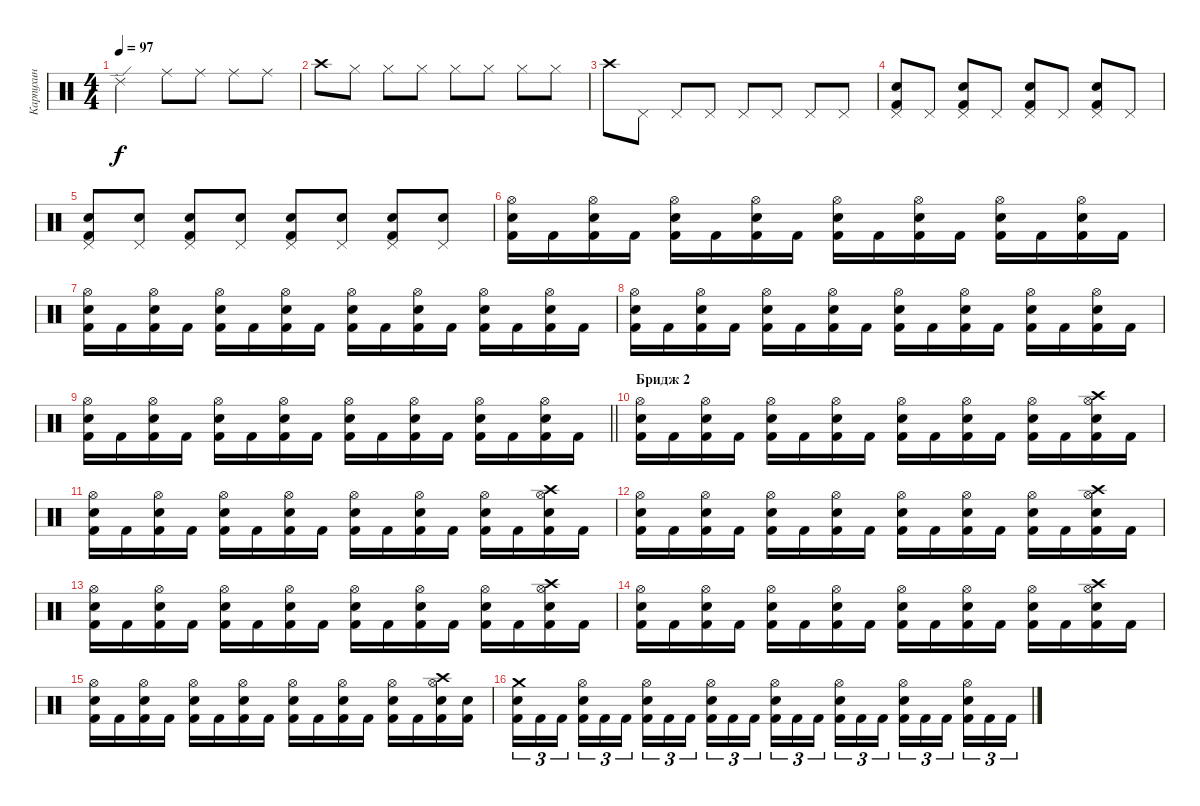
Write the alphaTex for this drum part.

\track ("Карпухин" "Карпухин") {instrument percussion}
\staff {score}
\articulation defaults
\ts (4 4)
\tempo 97
\clef neutral
\ks c "Ride (edge) 2".2{dy f} "Ride (middle)".8 "Ride (middle)".8 "Ride (middle)".8 "Ride (middle)".8
|
"Crash high (hit)".8 "Hi-Hat (closed)".8 "Hi-Hat (closed)".8 "Hi-Hat (closed)".8 "Hi-Hat (closed)".8 "Hi-Hat (closed)".8 "Hi-Hat (closed)".8 "Hi-Hat (closed)".8 |
"Crash high (hit)".8 "Pedal Hi-Hat (hit)".8 "Pedal Hi-Hat (hit)".8 "Pedal Hi-Hat (hit)".8 "Pedal Hi-Hat (hit)".8 "Pedal Hi-Hat (hit)".8 "Pedal Hi-Hat (hit)".8 "Pedal Hi-Hat (hit)".8 |
("Pedal Hi-Hat (hit)" "Electric Snare (hit)" "Kick (hit) 2").8 "Pedal Hi-Hat (hit)".8 ("Pedal Hi-Hat (hit)" "Electric Snare (hit)" "Kick (hit) 2").8 "Pedal Hi-Hat (hit)".8 ("Pedal Hi-Hat (hit)" "Electric Snare (hit)" "Kick (hit) 2").8 "Pedal Hi-Hat (hit)".8 ("Pedal Hi-Hat (hit)" "Electric Snare (hit)" "Kick (hit) 2").8 "Pedal Hi-Hat (hit)".8 |
("Pedal Hi-Hat (hit)" "Electric Snare (hit)" "Kick (hit) 2").8 ("Pedal Hi-Hat (hit)" "Electric Snare (hit)").8 ("Pedal Hi-Hat (hit)" "Electric Snare (hit)" "Kick (hit) 2").8 ("Pedal Hi-Hat (hit)" "Electric Snare (hit)").8 ("Pedal Hi-Hat (hit)" "Electric Snare (hit)" "Kick (hit) 2").8 ("Pedal Hi-Hat (hit)" "Electric Snare (hit)").8 ("Pedal Hi-Hat (hit)" "Electric Snare (hit)" "Kick (hit) 2").8 ("Pedal Hi-Hat (hit)" "Electric Snare (hit)").8 |
("Kick (hit) 2" "Snare (hit) 2" "Hi-Hat (open)").16 "Kick (hit) 2".16 ("Kick (hit) 2" "Snare (hit) 2" "Hi-Hat (open)").16 "Kick (hit) 2".16 ("Kick (hit) 2" "Snare (hit) 2" "Hi-Hat (open)").16 "Kick (hit) 2".16 ("Kick (hit) 2" "Snare (hit) 2" "Hi-Hat (open)").16 "Kick (hit) 2".16 ("Kick (hit) 2" "Snare (hit) 2" "Hi-Hat (open)").16 "Kick (hit) 2".16 ("Kick (hit) 2" "Snare (hit) 2" "Hi-Hat (open)").16 "Kick (hit) 2".16 ("Kick (hit) 2" "Snare (hit) 2" "Hi-Hat (open)").16 "Kick (hit) 2".16 ("Kick (hit) 2" "Snare (hit) 2" "Hi-Hat (open)").16 "Kick (hit) 2".16 |
("Kick (hit) 2" "Snare (hit) 2" "Hi-Hat (open)").16 "Kick (hit) 2".16 ("Kick (hit) 2" "Snare (hit) 2" "Hi-Hat (open)").16 "Kick (hit) 2".16 ("Kick (hit) 2" "Snare (hit) 2" "Hi-Hat (open)").16 "Kick (hit) 2".16 ("Kick (hit) 2" "Snare (hit) 2" "Hi-Hat (open)").16 "Kick (hit) 2".16 ("Kick (hit) 2" "Snare (hit) 2" "Hi-Hat (open)").16 "Kick (hit) 2".16 ("Kick (hit) 2" "Snare (hit) 2" "Hi-Hat (open)").16 "Kick (hit) 2".16 ("Kick (hit) 2" "Snare (hit) 2" "Hi-Hat (open)").16 "Kick (hit) 2".16 ("Kick (hit) 2" "Snare (hit) 2" "Hi-Hat (open)").16 "Kick (hit) 2".16 |
("Kick (hit) 2" "Snare (hit) 2" "Hi-Hat (open)").16 "Kick (hit) 2".16 ("Kick (hit) 2" "Snare (hit) 2" "Hi-Hat (open)").16 "Kick (hit) 2".16 ("Kick (hit) 2" "Snare (hit) 2" "Hi-Hat (open)").16 "Kick (hit) 2".16 ("Kick (hit) 2" "Snare (hit) 2" "Hi-Hat (open)").16 "Kick (hit) 2".16 ("Kick (hit) 2" "Snare (hit) 2" "Hi-Hat (open)").16 "Kick (hit) 2".16 ("Kick (hit) 2" "Snare (hit) 2" "Hi-Hat (open)").16 "Kick (hit) 2".16 ("Kick (hit) 2" "Snare (hit) 2" "Hi-Hat (open)").16 "Kick (hit) 2".16 ("Kick (hit) 2" "Snare (hit) 2" "Hi-Hat (open)").16 "Kick (hit) 2".16 |
\barLineRight lightlight
("Kick (hit) 2" "Snare (hit) 2" "Hi-Hat (open)").16 "Kick (hit) 2".16 ("Kick (hit) 2" "Snare (hit) 2" "Hi-Hat (open)").16 "Kick (hit) 2".16 ("Kick (hit) 2" "Snare (hit) 2" "Hi-Hat (open)").16 "Kick (hit) 2".16 ("Kick (hit) 2" "Snare (hit) 2" "Hi-Hat (open)").16 "Kick (hit) 2".16 ("Kick (hit) 2" "Snare (hit) 2" "Hi-Hat (open)").16 "Kick (hit) 2".16 ("Kick (hit) 2" "Snare (hit) 2" "Hi-Hat (open)").16 "Kick (hit) 2".16 ("Kick (hit) 2" "Snare (hit) 2" "Hi-Hat (open)").16 "Kick (hit) 2".16 ("Kick (hit) 2" "Snare (hit) 2" "Hi-Hat (open)").16 "Kick (hit) 2".16 |
\section ("" "Бридж 2")
("Kick (hit) 2" "Snare (hit) 2" "Hi-Hat (open)").16 "Kick (hit) 2".16 ("Kick (hit) 2" "Snare (hit) 2" "Hi-Hat (open)").16 "Kick (hit) 2".16 ("Kick (hit) 2" "Snare (hit) 2" "Hi-Hat (open)").16 "Kick (hit) 2".16 ("Kick (hit) 2" "Snare (hit) 2" "Hi-Hat (open)").16 "Kick (hit) 2".16 ("Kick (hit) 2" "Snare (hit) 2" "Hi-Hat (open)").16 "Kick (hit) 2".16 ("Kick (hit) 2" "Snare (hit) 2" "Hi-Hat (open)").16 "Kick (hit) 2".16 ("Kick (hit) 2" "Snare (hit) 2" "Hi-Hat (open)").16 "Kick (hit) 2".16 ("Kick (hit) 2" "Snare (hit) 2" "Hi-Hat (open)" "Crash high (hit)").16 "Kick (hit) 2".16 |
("Kick (hit) 2" "Snare (hit) 2" "Hi-Hat (open)").16 "Kick (hit) 2".16 ("Kick (hit) 2" "Snare (hit) 2" "Hi-Hat (open)").16 "Kick (hit) 2".16 ("Kick (hit) 2" "Snare (hit) 2" "Hi-Hat (open)").16 "Kick (hit) 2".16 ("Kick (hit) 2" "Snare (hit) 2" "Hi-Hat (open)").16 "Kick (hit) 2".16 ("Kick (hit) 2" "Snare (hit) 2" "Hi-Hat (open)").16 "Kick (hit) 2".16 ("Kick (hit) 2" "Snare (hit) 2" "Hi-Hat (open)").16 "Kick (hit) 2".16 ("Kick (hit) 2" "Snare (hit) 2" "Hi-Hat (open)").16 "Kick (hit) 2".16 ("Kick (hit) 2" "Snare (hit) 2" "Hi-Hat (open)" "Crash high (hit)").16 "Kick (hit) 2".16 |
("Kick (hit) 2" "Snare (hit) 2" "Hi-Hat (open)").16 "Kick (hit) 2".16 ("Kick (hit) 2" "Snare (hit) 2" "Hi-Hat (open)").16 "Kick (hit) 2".16 ("Kick (hit) 2" "Snare (hit) 2" "Hi-Hat (open)").16 "Kick (hit) 2".16 ("Kick (hit) 2" "Snare (hit) 2" "Hi-Hat (open)").16 "Kick (hit) 2".16 ("Kick (hit) 2" "Snare (hit) 2" "Hi-Hat (open)").16 "Kick (hit) 2".16 ("Kick (hit) 2" "Snare (hit) 2" "Hi-Hat (open)").16 "Kick (hit) 2".16 ("Kick (hit) 2" "Snare (hit) 2" "Hi-Hat (open)").16 "Kick (hit) 2".16 ("Kick (hit) 2" "Snare (hit) 2" "Hi-Hat (open)" "Crash high (hit)").16 "Kick (hit) 2".16 |
("Kick (hit) 2" "Snare (hit) 2" "Hi-Hat (open)").16 "Kick (hit) 2".16 ("Kick (hit) 2" "Snare (hit) 2" "Hi-Hat (open)").16 "Kick (hit) 2".16 ("Kick (hit) 2" "Snare (hit) 2" "Hi-Hat (open)").16 "Kick (hit) 2".16 ("Kick (hit) 2" "Snare (hit) 2" "Hi-Hat (open)").16 "Kick (hit) 2".16 ("Kick (hit) 2" "Snare (hit) 2" "Hi-Hat (open)").16 "Kick (hit) 2".16 ("Kick (hit) 2" "Snare (hit) 2" "Hi-Hat (open)").16 "Kick (hit) 2".16 ("Kick (hit) 2" "Snare (hit) 2" "Hi-Hat (open)").16 "Kick (hit) 2".16 ("Kick (hit) 2" "Snare (hit) 2" "Hi-Hat (open)" "Crash high (hit)").16 "Kick (hit) 2".16 |
("Kick (hit) 2" "Snare (hit) 2" "Hi-Hat (open)").16 "Kick (hit) 2".16 ("Kick (hit) 2" "Snare (hit) 2" "Hi-Hat (open)").16 "Kick (hit) 2".16 ("Kick (hit) 2" "Snare (hit) 2" "Hi-Hat (open)").16 "Kick (hit) 2".16 ("Kick (hit) 2" "Snare (hit) 2" "Hi-Hat (open)").16 "Kick (hit) 2".16 ("Kick (hit) 2" "Snare (hit) 2" "Hi-Hat (open)").16 "Kick (hit) 2".16 ("Kick (hit) 2" "Snare (hit) 2" "Hi-Hat (open)").16 "Kick (hit) 2".16 ("Kick (hit) 2" "Snare (hit) 2" "Hi-Hat (open)").16 "Kick (hit) 2".16 ("Kick (hit) 2" "Snare (hit) 2" "Hi-Hat (open)" "Crash high (hit)").16 "Kick (hit) 2".16 |
("Kick (hit) 2" "Snare (hit) 2" "Hi-Hat (open)").16 "Kick (hit) 2".16 ("Kick (hit) 2" "Snare (hit) 2" "Hi-Hat (open)").16 "Kick (hit) 2".16 ("Kick (hit) 2" "Snare (hit) 2" "Hi-Hat (open)").16 "Kick (hit) 2".16 ("Kick (hit) 2" "Snare (hit) 2" "Hi-Hat (open)").16 "Kick (hit) 2".16 ("Kick (hit) 2" "Snare (hit) 2" "Hi-Hat (open)").16 "Kick (hit) 2".16 ("Kick (hit) 2" "Snare (hit) 2" "Hi-Hat (open)").16 "Kick (hit) 2".16 ("Kick (hit) 2" "Snare (hit) 2" "Hi-Hat (open)").16 "Kick (hit) 2".16 ("Kick (hit) 2" "Snare (hit) 2" "Hi-Hat (open)" "Crash high (hit)").16 ("Kick (hit) 2" "Snare (hit) 2").16 |
("Snare (hit) 2" "Crash medium (hit)" "Kick (hit) 2").16{tu (3 2)} "Kick (hit) 2".16{tu (3 2)} "Kick (hit) 2".16{tu (3 2) beam splitsecondary} ("Snare (hit) 2" "Hi-Hat (open)" "Kick (hit) 2").16{tu (3 2)} "Kick (hit) 2".16{tu (3 2)} "Kick (hit) 2".16{tu (3 2)} ("Snare (hit) 2" "Hi-Hat (open)" "Kick (hit) 2").16{tu (3 2)} "Kick (hit) 2".16{tu (3 2)} "Kick (hit) 2".16{tu (3 2) beam splitsecondary} ("Snare (hit) 2" "Hi-Hat (open)" "Kick (hit) 2").16{tu (3 2)} "Kick (hit) 2".16{tu (3 2)} "Kick (hit) 2".16{tu (3 2)} ("Snare (hit) 2" "Hi-Hat (open)" "Kick (hit) 2").16{tu (3 2)} "Kick (hit) 2".16{tu (3 2)} "Kick (hit) 2".16{tu (3 2) beam splitsecondary} ("Snare (hit) 2" "Hi-Hat (open)" "Kick (hit) 2").16{tu (3 2)} "Kick (hit) 2".16{tu (3 2)} "Kick (hit) 2".16{tu (3 2)} ("Snare (hit) 2" "Hi-Hat (open)" "Kick (hit) 2").16{tu (3 2)} "Kick (hit) 2".16{tu (3 2)} "Kick (hit) 2".16{tu (3 2) beam splitsecondary} ("Snare (hit) 2" "Hi-Hat (open)" "Kick (hit) 2").16{tu (3 2)} "Kick (hit) 2".16{tu (3 2)} "Kick (hit) 2".16{tu (3 2)}
